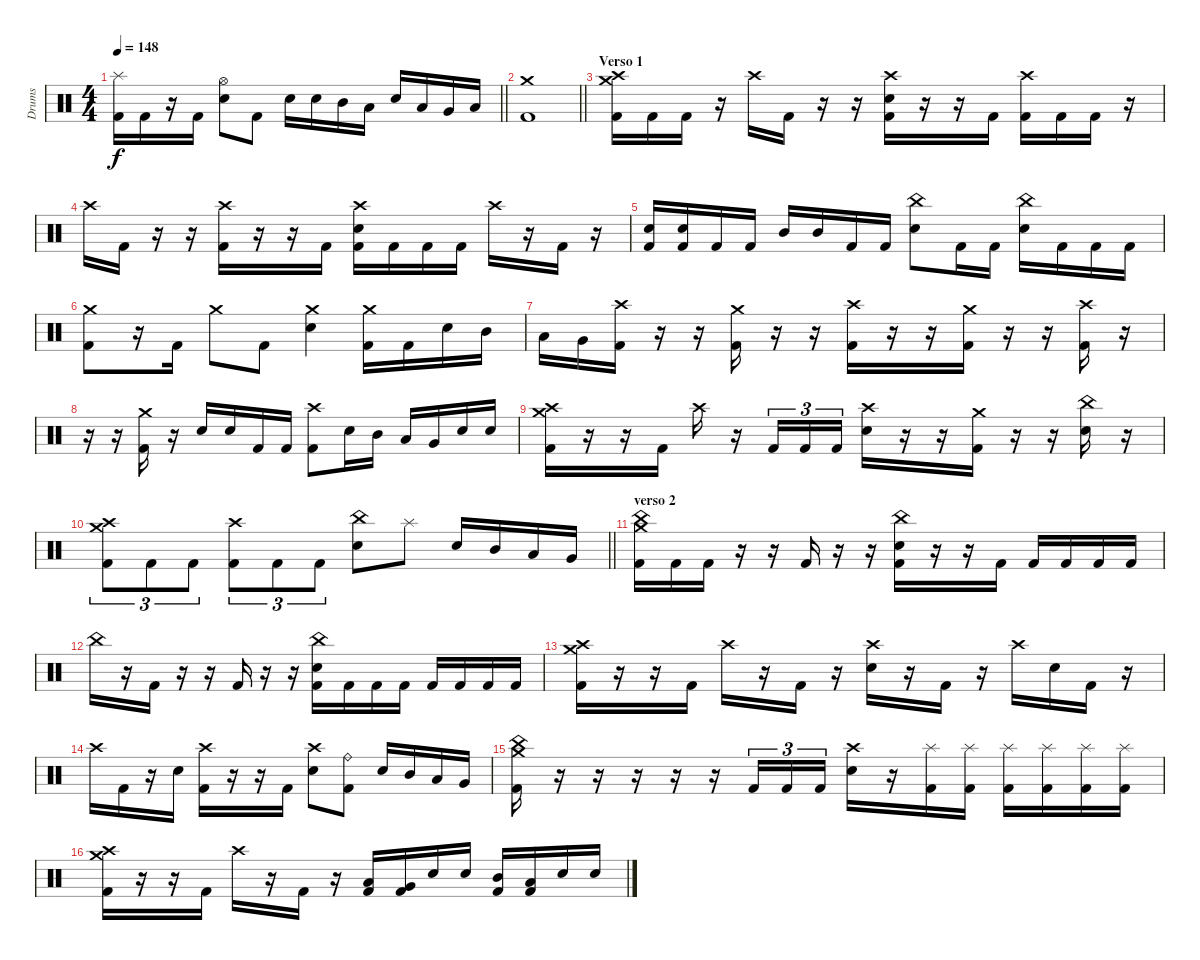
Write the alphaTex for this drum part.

\track ("Drums" "Drums") {instrument percussion}
\staff {score}
\articulation defaults
\ts (4 4)
\tempo 148
\clef neutral
\barLineRight lightlight
\ks c
("Splash (hit)" "Kick (hit) 2").16{dy f} "Kick (hit) 2".16 r.16 "Kick (hit) 2".16 ("Hi-Hat (open)" "Electric Snare (hit)").8 "Kick (hit) 2".8 "Electric Snare (hit)".16 "Electric Snare (hit)".16 "Mid Tom (hit)".16 "Low Tom (hit)".16 "Electric Snare (hit)".16 "Low Tom (hit)".16 "Very Low Tom (hit)".16 "Low Floor Tom (hit)".16 |
\barLineRight lightlight
("Crash medium (hit)" "Kick (hit) 2").1 |
\section ("" "Verso 1")
("Crash high (hit)" "Crash medium (hit)" "Kick (hit) 2").16 "Kick (hit) 2".16 "Kick (hit) 2".16 r.16 "Crash high (hit)".16 "Kick (hit) 2".16 r.16 r.16 ("Crash high (hit)" "Electric Snare (hit)" "Kick (hit) 2").16 r.16 r.16 "Kick (hit) 2".16 ("Crash high (hit)" "Kick (hit) 2").16 "Kick (hit) 2".16 "Kick (hit) 2".16 r.16 |
"Crash high (hit)".16 "Kick (hit) 2".16 r.16 r.16 ("Crash high (hit)" "Kick (hit) 2").16 r.16 r.16 "Kick (hit) 2".16 ("Crash high (hit)" "Electric Snare (hit)" "Kick (hit) 2").16 "Kick (hit) 2".16 "Kick (hit) 2".16 "Kick (hit) 2".16 "Crash high (hit)".16 r.16 "Kick (hit) 2".16 r.16 |
("Electric Snare (hit)" "Kick (hit) 2").16 ("Electric Snare (hit)" "Kick (hit) 2").16 "Kick (hit) 2".16 "Kick (hit) 2".16 "Mid Tom (hit)".16 "Mid Tom (hit)".16 "Kick (hit) 2".16 "Kick (hit) 2".16 ("China (hit)" "Electric Snare (hit)").8 "Kick (hit) 2".16 "Kick (hit) 2".16 ("China (hit)" "Electric Snare (hit)").16 "Kick (hit) 2".16 "Kick (hit) 2".16 "Kick (hit) 2".16 |
("Crash medium (hit)" "Kick (hit) 2").8 r.16 "Kick (hit) 2".16 "Crash medium (hit)".8 "Kick (hit) 2".8 ("Crash medium (hit)" "Electric Snare (hit)").4 ("Crash medium (hit)" "Kick (hit) 2").16 "Kick (hit) 2".16 "Electric Snare (hit)".16 "Mid Tom (hit)".16 |
"Low Tom (hit)".16 "Very Low Tom (hit)".16 ("Crash high (hit)" "Kick (hit) 2").16 r.16 r.16 ("Crash medium (hit)" "Kick (hit) 2").16 r.16 r.16 ("Crash high (hit)" "Kick (hit) 2").16 r.16 r.16 ("Crash medium (hit)" "Kick (hit) 2").16 r.16 r.16 ("Crash high (hit)" "Kick (hit) 2").16 r.16 |
r.16 r.16 ("Crash medium (hit)" "Kick (hit) 2").16 r.16 "Electric Snare (hit)".16 "Electric Snare (hit)".16 "Kick (hit) 2".16 "Kick (hit) 2".16 ("Crash high (hit)" "Kick (hit) 2").8 "Electric Snare (hit)".16 "Mid Tom (hit)".16 "Low Tom (hit)".16 "Very Low Tom (hit)".16 "Electric Snare (hit)".16 "Electric Snare (hit)".16 |
("Crash high (hit)" "Crash medium (hit)" "Kick (hit) 2").16 r.16 r.16 "Kick (hit) 2".16 "Crash high (hit)".16 r.16 "Kick (hit) 2".16{tu (3 2)} "Kick (hit) 2".16{tu (3 2)} "Kick (hit) 2".16{tu (3 2)} ("Crash high (hit)" "Electric Snare (hit)").16 r.16 r.16 ("Crash medium (hit)" "Kick (hit) 2").16 r.16 r.16 ("China (hit)" "Electric Snare (hit)").16 r.16 |
\barLineRight lightlight
("Crash medium (hit)" "Crash high (hit)" "Kick (hit) 2").8{tu (3 2)} "Kick (hit) 2".8{tu (3 2)} "Kick (hit) 2".8{tu (3 2)} ("Crash high (hit)" "Kick (hit) 2").8{tu (3 2)} "Kick (hit) 2".8{tu (3 2)} "Kick (hit) 2".8{tu (3 2)} ("China (hit)" "Electric Snare (hit)").8 "Splash (hit)".8 "Electric Snare (hit)".16 "Mid Tom (hit)".16 "Low Tom (hit)".16 "Very Low Tom (hit)".16 |
\section ("" "verso 2")
("China (hit)" "Crash medium (hit)" "Kick (hit) 2").16 "Kick (hit) 2".16 "Kick (hit) 2".16 r.16 r.16 "Kick (hit) 2".16 r.16 r.16 ("China (hit)" "Electric Snare (hit)" "Kick (hit) 2").16 r.16 r.16 "Kick (hit) 2".16 "Kick (hit) 2".16 "Kick (hit) 2".16 "Kick (hit) 2".16 "Kick (hit) 2".16 |
"China (hit)".16 r.16 "Kick (hit) 2".16 r.16 r.16 "Kick (hit) 2".16 r.16 r.16 ("China (hit)" "Electric Snare (hit)" "Kick (hit) 2").16 "Kick (hit) 2".16 "Kick (hit) 2".16 "Kick (hit) 2".16 "Kick (hit) 2".16 "Kick (hit) 2".16 "Kick (hit) 2".16 "Kick (hit) 2".16 |
("Crash high (hit)" "Crash medium (hit)" "Kick (hit) 2").16 r.16 r.16 "Kick (hit) 2".16 "Crash high (hit)".16 r.16 "Kick (hit) 2".16 r.16 ("Crash high (hit)" "Electric Snare (hit)").16 r.16 "Kick (hit) 2".16 r.16 "Crash high (hit)".16 "Electric Snare (hit)".16 "Kick (hit) 2".16 r.16 |
"Crash high (hit)".16 "Kick (hit) 2".16 r.16 "Electric Snare (hit)".16 ("Crash high (hit)" "Kick (hit) 2").16 r.16 r.16 "Kick (hit) 2".16 ("Crash high (hit)" "Electric Snare (hit)").8 ("Ride (bell)" "Kick (hit) 2").8 "Electric Snare (hit)".16 "Mid Tom (hit)".16 "Low Tom (hit)".16 "Very Low Tom (hit)".16 |
("China (hit)" "Crash medium (hit)" "Kick (hit) 2").16 r.16 r.16 r.16 r.16 r.16 "Kick (hit) 2".16{tu (3 2)} "Kick (hit) 2".16{tu (3 2)} "Kick (hit) 2".16{tu (3 2)} ("Crash high (hit)" "Electric Snare (hit)").16 r.16 ("Splash (hit)" "Kick (hit) 2").16 ("Splash (hit)" "Kick (hit) 2").16 ("Splash (hit)" "Kick (hit) 2").16 ("Splash (hit)" "Kick (hit) 2").16 ("Splash (hit)" "Kick (hit) 2").16 ("Splash (hit)" "Kick (hit) 2").16 |
("Crash high (hit)" "Crash medium (hit)" "Kick (hit) 2").16 r.16 r.16 "Kick (hit) 2".16 "Crash high (hit)".16 r.16 "Kick (hit) 2".16 r.16 ("Low Tom (hit)" "Kick (hit) 2").16 ("Very Low Tom (hit)" "Kick (hit) 2").16 "Electric Snare (hit)".16 "Electric Snare (hit)".16 ("Mid Tom (hit)" "Kick (hit) 2").16 ("Low Tom (hit)" "Kick (hit) 2").16 "Electric Snare (hit)".16 "Electric Snare (hit)".16
